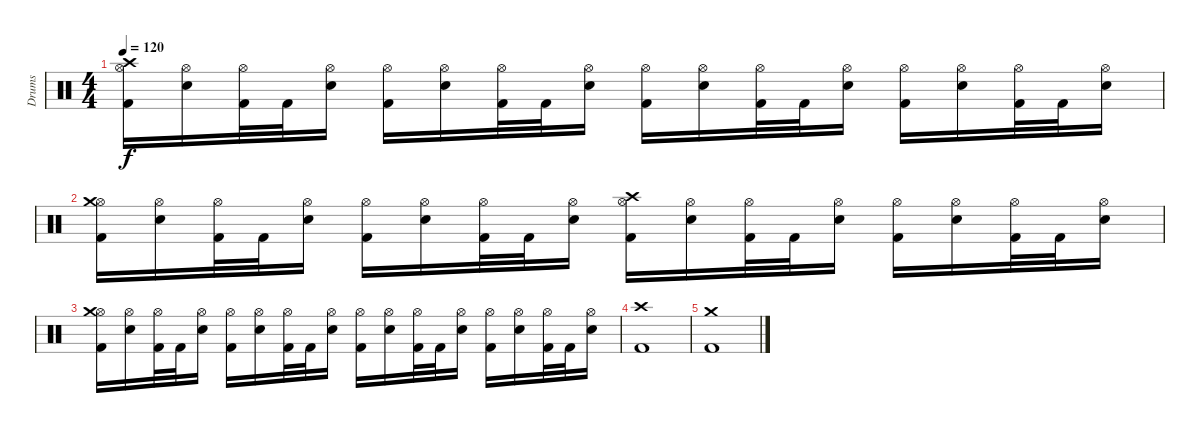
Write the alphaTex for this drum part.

\track ("Drums" "Drums") {instrument percussion}
\staff {score}
\articulation defaults
\ts (4 4)
\tempo 120
\clef neutral
\ks c
("Hi-Hat (open)" "Kick (hit) 2" "Crash high (hit)").16{dy f} ("Hi-Hat (open)" "Electric Snare (hit)").16 ("Hi-Hat (open)" "Kick (hit) 2").32 "Kick (hit) 2".32 ("Hi-Hat (open)" "Electric Snare (hit)").16 ("Hi-Hat (open)" "Kick (hit) 2").16 ("Hi-Hat (open)" "Electric Snare (hit)").16 ("Hi-Hat (open)" "Kick (hit) 2").32 "Kick (hit) 2".32 ("Hi-Hat (open)" "Electric Snare (hit)").16 ("Hi-Hat (open)" "Kick (hit) 2").16 ("Hi-Hat (open)" "Electric Snare (hit)").16 ("Hi-Hat (open)" "Kick (hit) 2").32 "Kick (hit) 2".32 ("Hi-Hat (open)" "Electric Snare (hit)").16 ("Hi-Hat (open)" "Kick (hit) 2").16 ("Hi-Hat (open)" "Electric Snare (hit)").16 ("Hi-Hat (open)" "Kick (hit) 2").32 "Kick (hit) 2".32 ("Hi-Hat (open)" "Electric Snare (hit)").16 |
("Hi-Hat (open)" "Kick (hit) 2" "Crash medium (hit)").16 ("Hi-Hat (open)" "Electric Snare (hit)").16 ("Hi-Hat (open)" "Kick (hit) 2").32 "Kick (hit) 2".32 ("Hi-Hat (open)" "Electric Snare (hit)").16 ("Hi-Hat (open)" "Kick (hit) 2").16 ("Hi-Hat (open)" "Electric Snare (hit)").16 ("Hi-Hat (open)" "Kick (hit) 2").32 "Kick (hit) 2".32 ("Hi-Hat (open)" "Electric Snare (hit)").16 ("Hi-Hat (open)" "Kick (hit) 2" "Crash high (hit)").16 ("Hi-Hat (open)" "Electric Snare (hit)").16 ("Hi-Hat (open)" "Kick (hit) 2").32 "Kick (hit) 2".32 ("Hi-Hat (open)" "Electric Snare (hit)").16 ("Hi-Hat (open)" "Kick (hit) 2").16 ("Hi-Hat (open)" "Electric Snare (hit)").16 ("Hi-Hat (open)" "Kick (hit) 2").32 "Kick (hit) 2".32 ("Hi-Hat (open)" "Electric Snare (hit)").16 |
("Hi-Hat (open)" "Kick (hit) 2" "Crash medium (hit)").16 ("Hi-Hat (open)" "Electric Snare (hit)").16 ("Hi-Hat (open)" "Kick (hit) 2").32 "Kick (hit) 2".32 ("Hi-Hat (open)" "Electric Snare (hit)").16 ("Hi-Hat (open)" "Kick (hit) 2").16 ("Hi-Hat (open)" "Electric Snare (hit)").16 ("Hi-Hat (open)" "Kick (hit) 2").32 "Kick (hit) 2".32 ("Hi-Hat (open)" "Electric Snare (hit)").16 ("Hi-Hat (open)" "Kick (hit) 2").16 ("Hi-Hat (open)" "Electric Snare (hit)").16 ("Hi-Hat (open)" "Kick (hit) 2").32 "Kick (hit) 2".32 ("Hi-Hat (open)" "Electric Snare (hit)").16 ("Hi-Hat (open)" "Kick (hit) 2").16 ("Hi-Hat (open)" "Electric Snare (hit)").16 ("Hi-Hat (open)" "Kick (hit) 2").32 "Kick (hit) 2".32 ("Hi-Hat (open)" "Electric Snare (hit)").16 |
("Kick (hit) 2" "Crash high (hit)").1 |
("Kick (hit) 2" "Crash medium (hit)").1
